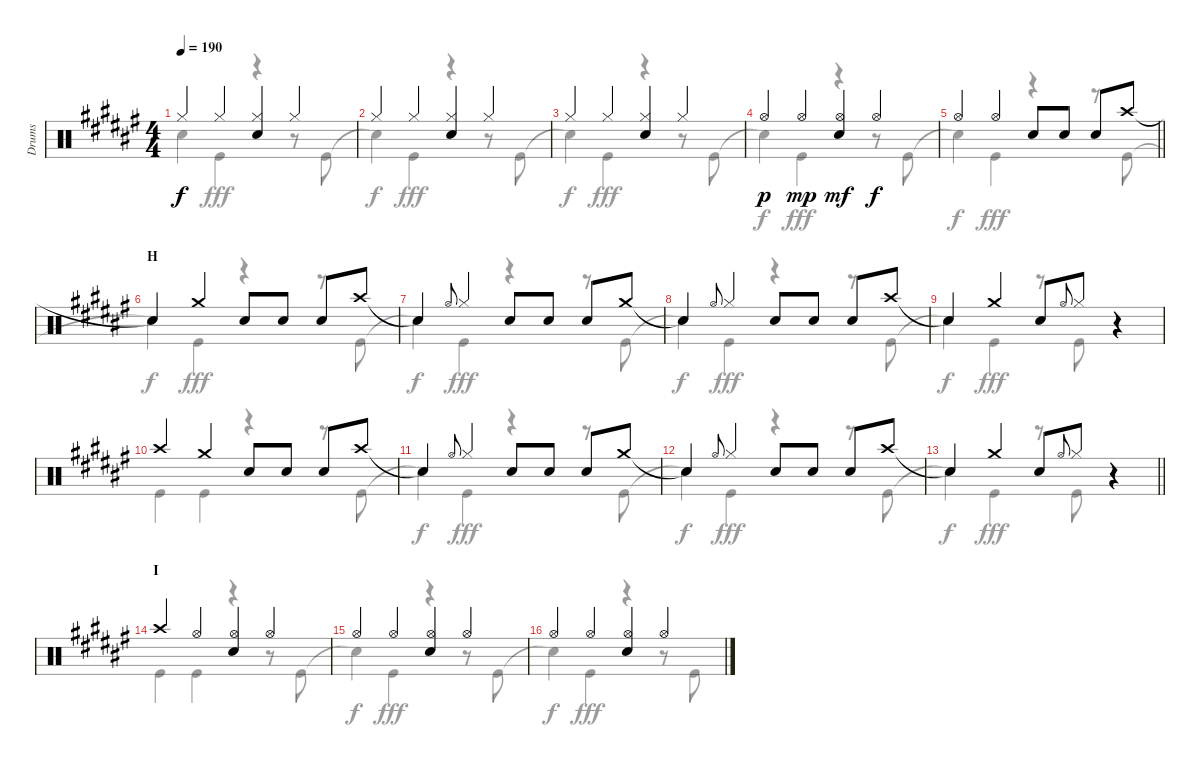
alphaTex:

\track ("Drums" "Drums") {instrument percussion}
\staff {score}
\articulation defaults
\voice
\ts (4 4)
\tempo 190
\clef neutral
\ks f# "Hi-Hat (closed)".4{dy f} "Hi-Hat (closed)".4
("Hi-Hat (closed)" "Snare (hit) 2").4 "Hi-Hat (closed)".4 |
"Hi-Hat (closed)".4 "Hi-Hat (closed)".4 ("Hi-Hat (closed)" "Snare (hit) 2").4 "Hi-Hat (closed)".4 |
"Hi-Hat (closed)".4 "Hi-Hat (closed)".4 ("Hi-Hat (closed)" "Snare (hit) 2").4 "Hi-Hat (closed)".4 |
"Hi-Hat (open)".4{dy p} "Hi-Hat (open)".4{dy mp} ("Hi-Hat (open)" "Snare (hit) 2").4{dy mf} "Hi-Hat (open)".4{dy f} |
\barLineRight lightlight "Hi-Hat (open)".4 "Hi-Hat (open)".4 "Snare (hit) 2".8 "Snare (hit) 2".8 "Snare (hit) 2".8 "Crash high (hit)".8
|
\section ("" "H")
"Snare (hit)"{t}.4 "Crash medium (hit)".4 "Snare (hit) 2".8 "Snare (hit) 2".8 "Snare (hit) 2".8 "Crash high (hit)".8 |
"Snare (hit)"{t}.4 "Hi-Hat (open)".8{gr onbeat} "Hi-Hat (closed)".4 "Snare (hit) 2".8 "Snare (hit) 2".8 "Snare (hit) 2".8 "Crash medium (hit)".8 |
"Snare (hit)"{t}.4 "Hi-Hat (open)".8{gr onbeat} "Hi-Hat (closed)".4 "Snare (hit) 2".8 "Snare (hit) 2".8 "Snare (hit) 2".8 "Crash high (hit)".8 |
"Snare (hit)"{t}.4 "Crash medium (hit)".4 "Snare (hit) 2".8 "Hi-Hat (open)".8{gr onbeat} "Hi-Hat (closed)".8 r.4 |
"Crash high (hit)".4 "Crash medium (hit)".4 "Snare (hit) 2".8 "Snare (hit) 2".8 "Snare (hit) 2".8 "Crash high (hit)".8 |
"Snare (hit)"{t}.4 "Hi-Hat (open)".8{gr onbeat} "Hi-Hat (closed)".4 "Snare (hit) 2".8 "Snare (hit) 2".8 "Snare (hit) 2".8 "Crash medium (hit)".8 |
"Snare (hit)"{t}.4 "Hi-Hat (open)".8{gr onbeat} "Hi-Hat (closed)".4 "Snare (hit) 2".8 "Snare (hit) 2".8 "Snare (hit) 2".8 "Crash high (hit)".8 |
\barLineRight lightlight "Snare (hit)"{t}.4 "Crash medium (hit)".4 "Snare (hit) 2".8 "Hi-Hat (open)".8{gr onbeat} "Hi-Hat (closed)".8
r.4 |
\section ("" "I")
"Crash high (hit)".4 "Hi-Hat (open)".4 ("Hi-Hat (open)" "Snare (hit) 2").4 "Hi-Hat (open)".4 |
"Hi-Hat (open)".4 "Hi-Hat (open)".4 ("Hi-Hat (open)" "Snare (hit) 2").4 "Hi-Hat (open)".4 |
"Hi-Hat (open)".4 "Hi-Hat (open)".4 ("Hi-Hat (open)" "Snare (hit) 2").4 "Hi-Hat (open)".4
\voice
\clef neutral
\ottava regular
\simile none
\ks f# "Snare (hit)"{t}.4{dy f} "Kick (hit)".4{dy fff}
r.4 r.8 "Kick (hit)".8 |
"Snare (hit)"{t}.4{dy f} "Kick (hit)".4{dy fff} r.4 r.8 "Kick (hit)".8 |
"Snare (hit)"{t}.4{dy f} "Kick (hit)".4{dy fff} r.4 r.8 "Kick (hit)".8 |
"Snare (hit)"{t}.4{dy f} "Kick (hit)".4{dy fff} r.4 r.8 "Kick (hit)".8 |
\barLineRight lightlight "Snare (hit)"{t}.4{dy f} "Kick (hit)".4{dy fff}
r.4 r.8 "Kick (hit)".8 |
"Snare (hit)"{t}.4{dy f} "Kick (hit)".4{dy fff} r.4 r.8 "Kick (hit)".8 |
"Snare (hit)"{t}.4{dy f} "Kick (hit)".4{dy fff} r.4 r.8 "Kick (hit)".8 |
"Snare (hit)"{t}.4{dy f} "Kick (hit)".4{dy fff} r.4 r.8 "Kick (hit)".8 |
"Snare (hit)"{t}.4{dy f} "Kick (hit)".4{dy fff} r.8 "Kick (hit)".8 r.4 |
"Kick (hit)".4 "Kick (hit)".4 r.4 r.8 "Kick (hit)".8 |
"Snare (hit)"{t}.4{dy f} "Kick (hit)".4{dy fff} r.4 r.8 "Kick (hit)".8 |
"Snare (hit)"{t}.4{dy f} "Kick (hit)".4{dy fff} r.4 r.8 "Kick (hit)".8 |
\barLineRight lightlight "Snare (hit)"{t}.4{dy f} "Kick (hit)".4{dy fff}
r.8 "Kick (hit)".8 r.4 |
"Kick (hit)".4 "Kick (hit)".4 r.4 r.8 "Kick (hit)".8 |
"Snare (hit)"{t}.4{dy f} "Kick (hit)".4{dy fff} r.4 r.8 "Kick (hit)".8 |
"Snare (hit)"{t}.4{dy f} "Kick (hit)".4{dy fff} r.4 r.8 "Kick (hit)".8
